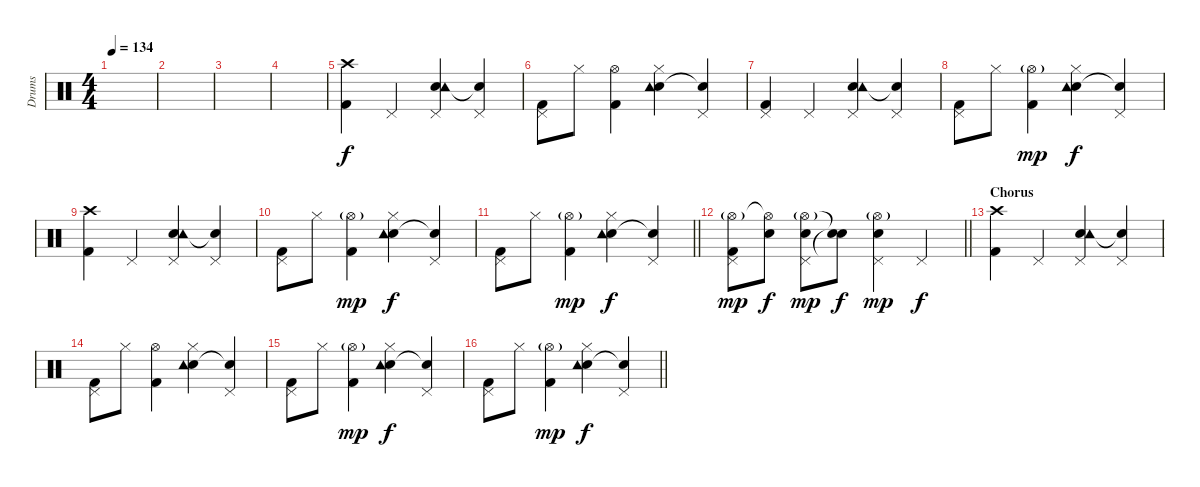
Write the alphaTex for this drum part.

\track ("Drums" "Drums") {instrument percussion}
\staff {score}
\articulation defaults
\ts (4 4)
\tempo 134
\clef neutral
\ks c
|
|
|
|
("Crash high (hit)" "Kick (hit) 2").4{dy f} "Pedal Hi-Hat (hit)".4 ("Pedal Hi-Hat (hit)" "Electric Snare (hit)" "Tambourine (hit)").4 ("Pedal Hi-Hat (hit)" "Snare (hit)"{t}).4 |
("Pedal Hi-Hat (hit)" "Kick (hit) 2").8 "Hi-Hat (closed)".8 ("Hi-Hat (open)" "Kick (hit) 2").4 ("Hi-Hat (closed)" "Electric Snare (hit)" "Tambourine (hit)").4 ("Pedal Hi-Hat (hit)" "Snare (hit)"{t}).4 |
("Pedal Hi-Hat (hit)" "Kick (hit) 2").4 "Pedal Hi-Hat (hit)".4 ("Pedal Hi-Hat (hit)" "Electric Snare (hit)" "Tambourine (hit)").4 ("Pedal Hi-Hat (hit)" "Snare (hit)"{t}).4 |
("Pedal Hi-Hat (hit)" "Kick (hit) 2").8 "Hi-Hat (closed)".8 ("Hi-Hat (open)"{g} "Kick (hit) 2").4{dy mp} ("Hi-Hat (closed)" "Electric Snare (hit)" "Tambourine (hit)").4{dy f} ("Pedal Hi-Hat (hit)" "Snare (hit)"{t}).4 |
("Crash high (hit)" "Kick (hit) 2").4 "Pedal Hi-Hat (hit)".4 ("Pedal Hi-Hat (hit)" "Electric Snare (hit)" "Tambourine (hit)").4 ("Pedal Hi-Hat (hit)" "Snare (hit)"{t}).4 |
("Pedal Hi-Hat (hit)" "Kick (hit) 2").8 "Hi-Hat (closed)".8 ("Hi-Hat (open)"{g} "Kick (hit) 2").4{dy mp} ("Hi-Hat (closed)" "Electric Snare (hit)" "Tambourine (hit)").4{dy f} ("Pedal Hi-Hat (hit)" "Snare (hit)"{t}).4 |
\barLineRight lightlight
("Pedal Hi-Hat (hit)" "Kick (hit) 2").8 "Hi-Hat (closed)".8 ("Hi-Hat (open)"{g} "Kick (hit) 2").4{dy mp} ("Hi-Hat (closed)" "Electric Snare (hit)" "Tambourine (hit)").4{dy f} ("Pedal Hi-Hat (hit)" "Snare (hit)"{t}).4 |
\barLineRight lightlight
("Hi-Hat (open)"{g} "Pedal Hi-Hat (hit)" "Kick (hit) 2").8{dy mp} ("Hi-Hat (open)"{t} "Electric Snare (hit)").8{dy f} ("Hi-Hat (open)"{g} "Pedal Hi-Hat (hit)" "Electric Snare (hit)").8{dy mp} ("Snare (hit)"{t} "Electric Snare (hit)"{t}).8{dy f} ("Hi-Hat (open)"{g} "Pedal Hi-Hat (hit)" "Electric Snare (hit)").4{dy mp} "Pedal Hi-Hat (hit)".4{dy f} |
\section ("" "Chorus")
("Crash high (hit)" "Kick (hit) 2").4 "Pedal Hi-Hat (hit)".4 ("Pedal Hi-Hat (hit)" "Electric Snare (hit)" "Tambourine (hit)").4 ("Pedal Hi-Hat (hit)" "Snare (hit)"{t}).4 |
("Pedal Hi-Hat (hit)" "Kick (hit) 2").8 "Hi-Hat (closed)".8 ("Hi-Hat (open)" "Kick (hit) 2").4 ("Hi-Hat (closed)" "Electric Snare (hit)" "Tambourine (hit)").4 ("Pedal Hi-Hat (hit)" "Snare (hit)"{t}).4 |
("Pedal Hi-Hat (hit)" "Kick (hit) 2").8 "Hi-Hat (closed)".8 ("Hi-Hat (open)"{g} "Kick (hit) 2").4{dy mp} ("Hi-Hat (closed)" "Electric Snare (hit)" "Tambourine (hit)").4{dy f} ("Pedal Hi-Hat (hit)" "Snare (hit)"{t}).4 |
\barLineRight lightlight
("Pedal Hi-Hat (hit)" "Kick (hit) 2").8 "Hi-Hat (closed)".8 ("Hi-Hat (open)"{g} "Kick (hit) 2").4{dy mp} ("Hi-Hat (closed)" "Electric Snare (hit)" "Tambourine (hit)").4{dy f} ("Pedal Hi-Hat (hit)" "Snare (hit)"{t}).4
